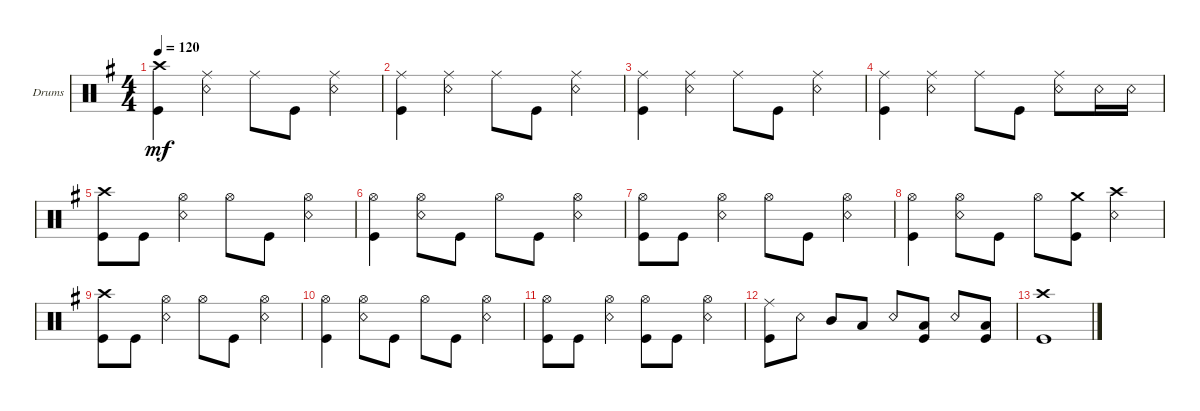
\defaultSystemsLayout 4
\bracketExtendMode groupsimilarinstruments
\firstSystemTrackNameOrientation horizontal
\otherSystemsTrackNameOrientation horizontal
\track ("Drumkit" "Drums") {instrument percussion}
\staff {score}
\articulation defaults
\ts (4 4)
\tempo 120
\clef neutral
\ks eminor
("Kick (hit)" "Crash high (hit)").4{dy mf} ("Snare (rim shot)" "Ride (middle)").4 "Ride (middle)".8 "Kick (hit)".8 ("Snare (rim shot)" "Ride (middle)").4 |
("Kick (hit)" "Ride (middle)").4 ("Snare (rim shot)" "Ride (middle)").4 "Ride (middle)".8 "Kick (hit)".8 ("Snare (rim shot)" "Ride (middle)").4 |
("Kick (hit)" "Ride (middle)").4 ("Snare (rim shot)" "Ride (middle)").4 "Ride (middle)".8 "Kick (hit)".8 ("Snare (rim shot)" "Ride (middle)").4 |
("Kick (hit)" "Ride (middle)").4 ("Snare (rim shot)" "Ride (middle)").4 "Ride (middle)".8 "Kick (hit)".8 ("Snare (rim shot)" "Ride (middle)").8 "Snare (rim shot)".16 "Snare (rim shot)".16 |
("Kick (hit)" "Crash high (hit)").8 "Kick (hit)".8 ("Hi-Hat (open)" "Snare (rim shot)").4 "Hi-Hat (open)".8 "Kick (hit)".8 ("Hi-Hat (open)" "Snare (rim shot)").4 |
("Kick (hit)" "Hi-Hat (open)").4 ("Hi-Hat (open)" "Snare (rim shot)").8 "Kick (hit)".8 "Hi-Hat (open)".8 "Kick (hit)".8 ("Hi-Hat (open)" "Snare (rim shot)").4 |
("Kick (hit)" "Hi-Hat (open)").8 "Kick (hit)".8 ("Hi-Hat (open)" "Snare (rim shot)").4 "Hi-Hat (open)".8 "Kick (hit)".8 ("Hi-Hat (open)" "Snare (rim shot)").4 |
("Kick (hit)" "Hi-Hat (open)").4 ("Hi-Hat (open)" "Snare (rim shot)").8 "Kick (hit)".8 "Hi-Hat (open)".8 ("Kick (hit)" "Crash medium (hit)").8 ("Snare (rim shot)" "Crash high (hit)").4 |
("Kick (hit)" "Crash high (hit)").8 "Kick (hit)".8 ("Hi-Hat (open)" "Snare (rim shot)").4 "Hi-Hat (open)".8 "Kick (hit)".8 ("Hi-Hat (open)" "Snare (rim shot)").4 |
("Kick (hit)" "Hi-Hat (open)").4 ("Hi-Hat (open)" "Snare (rim shot)").8 "Kick (hit)".8 "Hi-Hat (open)".8 "Kick (hit)".8 ("Hi-Hat (open)" "Snare (rim shot)").4 |
("Kick (hit)" "Hi-Hat (open)").8 "Kick (hit)".8 ("Hi-Hat (open)" "Snare (rim shot)").4 ("Hi-Hat (open)" "Kick (hit)").8 "Kick (hit)".8 ("Hi-Hat (open)" "Snare (rim shot)").4 |
("Kick (hit)" "Ride (middle)").8 "Snare (rim shot)".8 "Mid Tom (hit)".8 "Low Tom (hit)".8 "Snare (rim shot)".8 ("Low Tom (hit)" "Kick (hit)").8 "Snare (rim shot)".8 ("Low Tom (hit)" "Kick (hit)").8 |
("Kick (hit)" "Crash high (hit)").1
